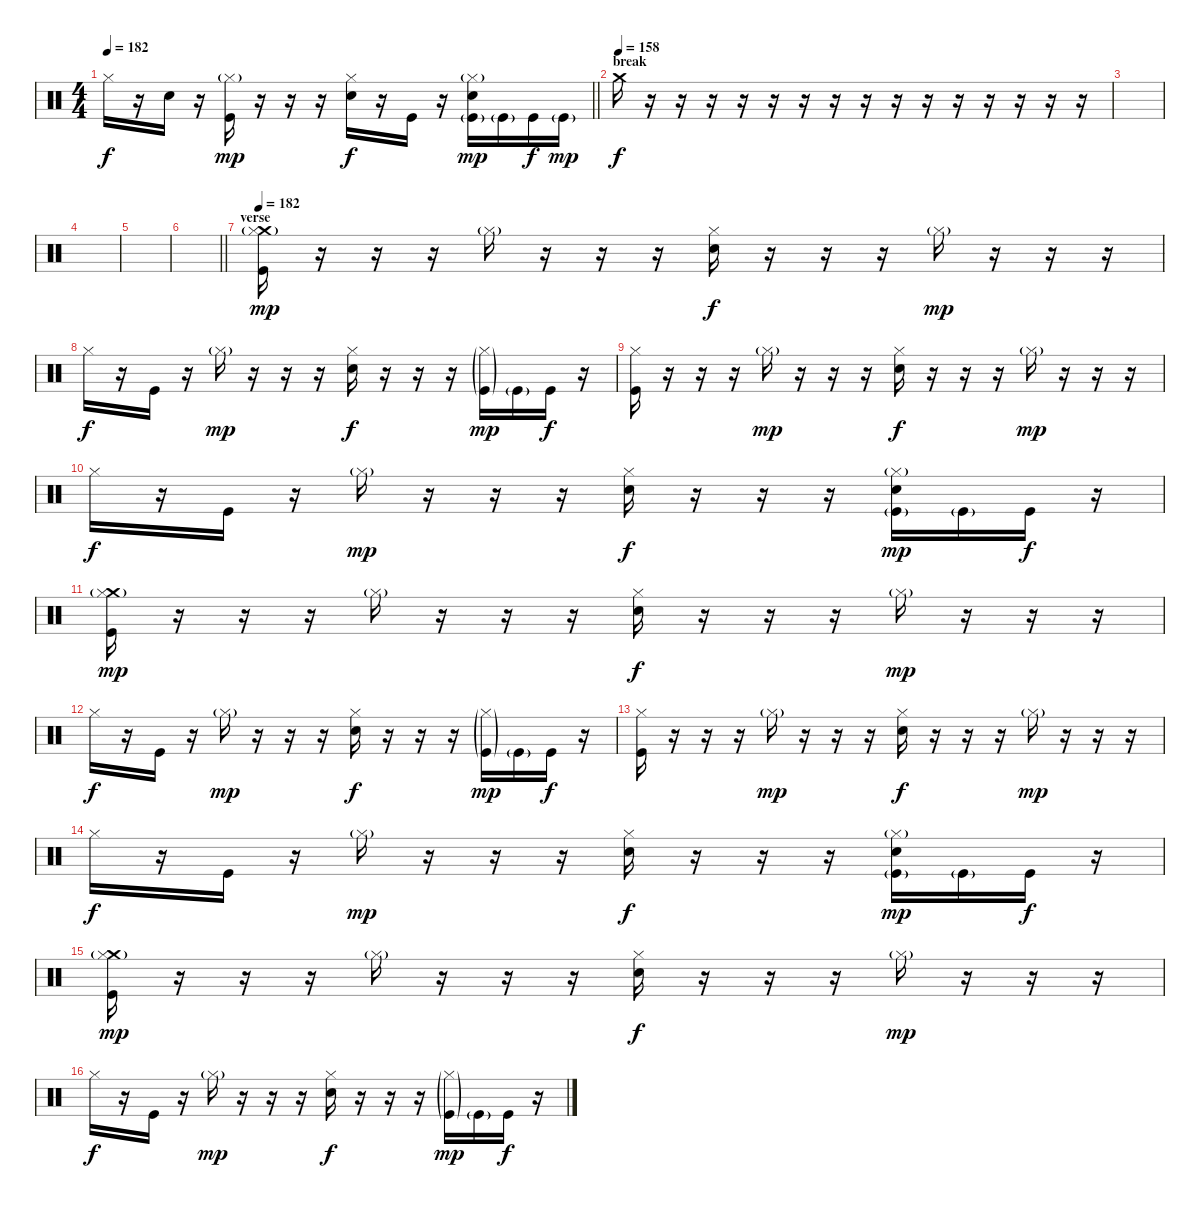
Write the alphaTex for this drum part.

\track "" {instrument percussion}
\staff {score}
\articulation defaults
\ts (4 4)
\tempo 182
\clef neutral
\barLineRight lightlight
\ks c "Hi-Hat (closed)".16{dy f}
r.16 "Electric Snare (hit)".16 r.16 ("Kick (hit)" "Hi-Hat (closed)"{g}).16{dy mp} r.16 r.16 r.16 ("Hi-Hat (closed)" "Electric Snare (hit)").16{dy f} r.16 "Kick (hit)".16 r.16 ("Kick (hit)"{g} "Hi-Hat (closed)"{g} "Electric Snare (hit)").16{dy mp} "Kick (hit)"{g}.16 "Kick (hit)".16{dy f} "Kick (hit)"{g}.16{dy mp} |
\section ("" "break")
\tempo (158)
"Crash medium (hit)".16{dy f} r.16 r.16 r.16 r.16 r.16 r.16 r.16 r.16 r.16 r.16 r.16 r.16 r.16 r.16 r.16 |
|
|
|
\barLineRight lightlight
|
\section ("" "verse")
\tempo 182
("Crash medium (hit)"{g} "Kick (hit)" "Hi-Hat (closed)").16{dy mp} r.16 r.16 r.16 "Hi-Hat (closed)"{g}.16 r.16 r.16 r.16 ("Hi-Hat (closed)" "Electric Snare (hit)").16{dy f} r.16 r.16 r.16 "Hi-Hat (closed)"{g}.16{dy mp} r.16 r.16 r.16 |
"Hi-Hat (closed)".16{dy f} r.16 "Kick (hit)".16 r.16 "Hi-Hat (closed)"{g}.16{dy mp} r.16 r.16 r.16 ("Hi-Hat (closed)" "Electric Snare (hit)").16{dy f} r.16 r.16 r.16 ("Kick (hit)"{g} "Hi-Hat (closed)"{g}).16{dy mp} "Kick (hit)"{g}.16 "Kick (hit)".16{dy f} r.16 |
("Kick (hit)" "Hi-Hat (closed)").16 r.16 r.16 r.16 "Hi-Hat (closed)"{g}.16{dy mp} r.16 r.16 r.16 ("Hi-Hat (closed)" "Electric Snare (hit)").16{dy f} r.16 r.16 r.16 "Hi-Hat (closed)"{g}.16{dy mp} r.16 r.16 r.16 |
"Hi-Hat (closed)".16{dy f} r.16 "Kick (hit)".16 r.16 "Hi-Hat (closed)"{g}.16{dy mp} r.16 r.16 r.16 ("Hi-Hat (closed)" "Electric Snare (hit)").16{dy f} r.16 r.16 r.16 ("Kick (hit)"{g} "Hi-Hat (closed)"{g} "Electric Snare (hit)").16{dy mp} "Kick (hit)"{g}.16 "Kick (hit)".16{dy f} r.16 |
("Crash medium (hit)"{g} "Kick (hit)" "Hi-Hat (closed)").16{dy mp} r.16 r.16 r.16 "Hi-Hat (closed)"{g}.16 r.16 r.16 r.16 ("Hi-Hat (closed)" "Electric Snare (hit)").16{dy f} r.16 r.16 r.16 "Hi-Hat (closed)"{g}.16{dy mp} r.16 r.16 r.16 |
"Hi-Hat (closed)".16{dy f} r.16 "Kick (hit)".16 r.16 "Hi-Hat (closed)"{g}.16{dy mp} r.16 r.16 r.16 ("Hi-Hat (closed)" "Electric Snare (hit)").16{dy f} r.16 r.16 r.16 ("Kick (hit)"{g} "Hi-Hat (closed)"{g}).16{dy mp} "Kick (hit)"{g}.16 "Kick (hit)".16{dy f} r.16 |
("Kick (hit)" "Hi-Hat (closed)").16 r.16 r.16 r.16 "Hi-Hat (closed)"{g}.16{dy mp} r.16 r.16 r.16 ("Hi-Hat (closed)" "Electric Snare (hit)").16{dy f} r.16 r.16 r.16 "Hi-Hat (closed)"{g}.16{dy mp} r.16 r.16 r.16 |
"Hi-Hat (closed)".16{dy f} r.16 "Kick (hit)".16 r.16 "Hi-Hat (closed)"{g}.16{dy mp} r.16 r.16 r.16 ("Hi-Hat (closed)" "Electric Snare (hit)").16{dy f} r.16 r.16 r.16 ("Kick (hit)"{g} "Hi-Hat (closed)"{g} "Electric Snare (hit)").16{dy mp} "Kick (hit)"{g}.16 "Kick (hit)".16{dy f} r.16 |
("Crash medium (hit)"{g} "Kick (hit)" "Hi-Hat (closed)").16{dy mp} r.16 r.16 r.16 "Hi-Hat (closed)"{g}.16 r.16 r.16 r.16 ("Hi-Hat (closed)" "Electric Snare (hit)").16{dy f} r.16 r.16 r.16 "Hi-Hat (closed)"{g}.16{dy mp} r.16 r.16 r.16 |
"Hi-Hat (closed)".16{dy f} r.16 "Kick (hit)".16 r.16 "Hi-Hat (closed)"{g}.16{dy mp} r.16 r.16 r.16 ("Hi-Hat (closed)" "Electric Snare (hit)").16{dy f} r.16 r.16 r.16 ("Kick (hit)"{g} "Hi-Hat (closed)"{g}).16{dy mp} "Kick (hit)"{g}.16 "Kick (hit)".16{dy f} r.16
